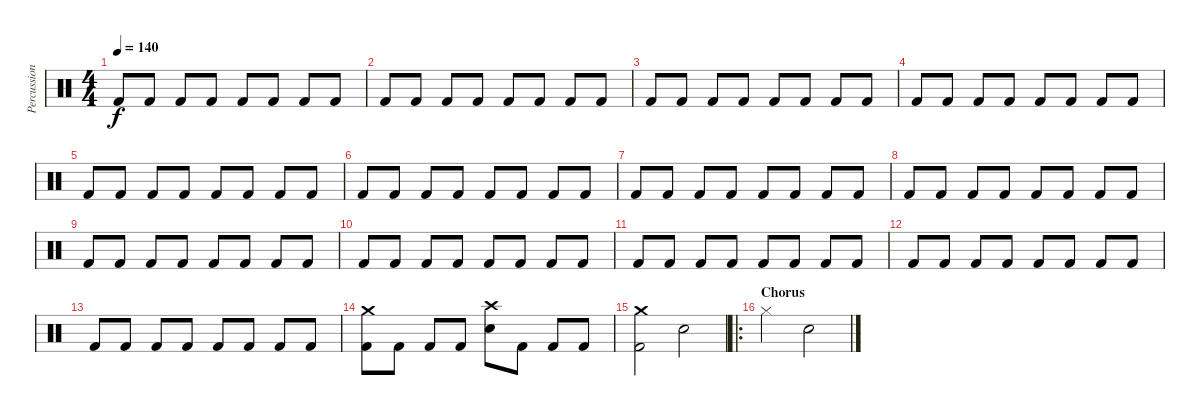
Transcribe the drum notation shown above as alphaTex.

\track ("Percussion" "Percussion") {instrument percussion}
\staff {score}
\articulation defaults
\ts (4 4)
\tempo 140
\clef neutral
\ks c "Kick (hit) 2".8{dy f} "Kick (hit) 2".8 "Kick (hit) 2".8 "Kick (hit) 2".8 "Kick (hit) 2".8 "Kick (hit) 2".8 "Kick (hit) 2".8 "Kick (hit) 2".8
|
"Kick (hit) 2".8 "Kick (hit) 2".8 "Kick (hit) 2".8 "Kick (hit) 2".8 "Kick (hit) 2".8 "Kick (hit) 2".8 "Kick (hit) 2".8 "Kick (hit) 2".8 |
"Kick (hit) 2".8 "Kick (hit) 2".8 "Kick (hit) 2".8 "Kick (hit) 2".8 "Kick (hit) 2".8 "Kick (hit) 2".8 "Kick (hit) 2".8 "Kick (hit) 2".8 |
"Kick (hit) 2".8 "Kick (hit) 2".8 "Kick (hit) 2".8 "Kick (hit) 2".8 "Kick (hit) 2".8 "Kick (hit) 2".8 "Kick (hit) 2".8 "Kick (hit) 2".8 |
"Kick (hit) 2".8 "Kick (hit) 2".8 "Kick (hit) 2".8 "Kick (hit) 2".8 "Kick (hit) 2".8 "Kick (hit) 2".8 "Kick (hit) 2".8 "Kick (hit) 2".8 |
"Kick (hit) 2".8 "Kick (hit) 2".8 "Kick (hit) 2".8 "Kick (hit) 2".8 "Kick (hit) 2".8 "Kick (hit) 2".8 "Kick (hit) 2".8 "Kick (hit) 2".8 |
"Kick (hit) 2".8 "Kick (hit) 2".8 "Kick (hit) 2".8 "Kick (hit) 2".8 "Kick (hit) 2".8 "Kick (hit) 2".8 "Kick (hit) 2".8 "Kick (hit) 2".8 |
"Kick (hit) 2".8 "Kick (hit) 2".8 "Kick (hit) 2".8 "Kick (hit) 2".8 "Kick (hit) 2".8 "Kick (hit) 2".8 "Kick (hit) 2".8 "Kick (hit) 2".8 |
"Kick (hit) 2".8 "Kick (hit) 2".8 "Kick (hit) 2".8 "Kick (hit) 2".8 "Kick (hit) 2".8 "Kick (hit) 2".8 "Kick (hit) 2".8 "Kick (hit) 2".8 |
"Kick (hit) 2".8 "Kick (hit) 2".8 "Kick (hit) 2".8 "Kick (hit) 2".8 "Kick (hit) 2".8 "Kick (hit) 2".8 "Kick (hit) 2".8 "Kick (hit) 2".8 |
"Kick (hit) 2".8 "Kick (hit) 2".8 "Kick (hit) 2".8 "Kick (hit) 2".8 "Kick (hit) 2".8 "Kick (hit) 2".8 "Kick (hit) 2".8 "Kick (hit) 2".8 |
"Kick (hit) 2".8 "Kick (hit) 2".8 "Kick (hit) 2".8 "Kick (hit) 2".8 "Kick (hit) 2".8 "Kick (hit) 2".8 "Kick (hit) 2".8 "Kick (hit) 2".8 |
"Kick (hit) 2".8 "Kick (hit) 2".8 "Kick (hit) 2".8 "Kick (hit) 2".8 "Kick (hit) 2".8 "Kick (hit) 2".8 "Kick (hit) 2".8 "Kick (hit) 2".8 |
("Crash medium (hit)" "Kick (hit) 2").8 "Kick (hit) 2".8 "Kick (hit) 2".8 "Kick (hit) 2".8 ("Crash high (hit)" "Snare (hit) 2").8 "Kick (hit) 2".8 "Kick (hit) 2".8 "Kick (hit) 2".8 |
("Crash medium (hit)" "Kick (hit) 2").2 "Snare (hit) 2".2 |
\ro
\section ("" "Chorus")
"Hi-Hat (closed)".2 "Snare (hit) 2".2
